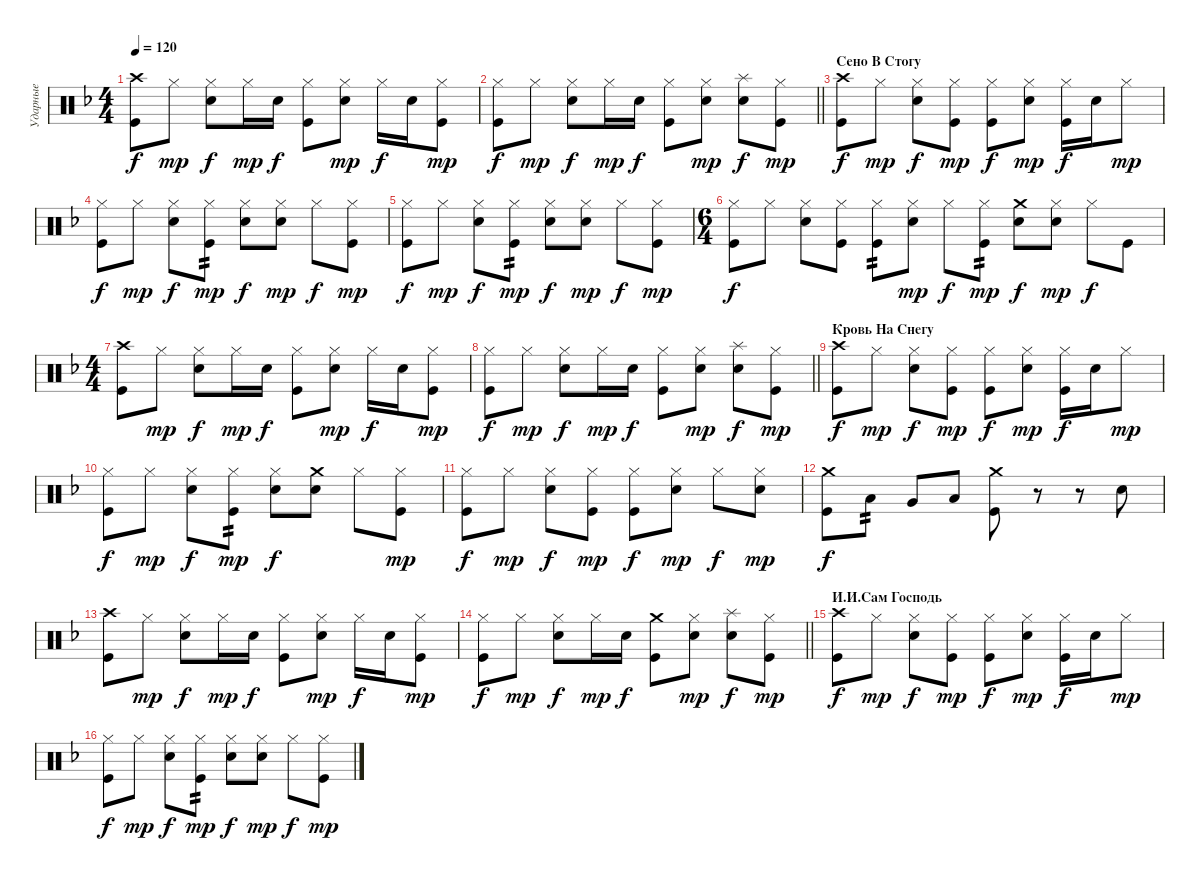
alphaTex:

\track ("Ударные" "Ударные") {instrument percussion}
\staff {score}
\articulation defaults
\ts (4 4)
\tempo 120
\clef neutral
\ks dminor
("Crash high (hit)" "Kick (hit)").8{dy f} "Hi-Hat (closed)".8{dy mp} ("Hi-Hat (closed)" "Snare (hit) 2").8{dy f} "Hi-Hat (closed)".16{dy mp} "Snare (hit) 2".16{dy f} ("Hi-Hat (closed)" "Kick (hit)").8 ("Hi-Hat (closed)" "Snare (hit) 2").8{dy mp} "Hi-Hat (closed)".16{dy f} "Snare (hit) 2".16 ("Hi-Hat (closed)" "Kick (hit)").8{dy mp} |
\barLineRight lightlight
("Hi-Hat (closed)" "Kick (hit)").8{dy f} "Hi-Hat (closed)".8{dy mp} ("Hi-Hat (closed)" "Snare (hit) 2").8{dy f} "Hi-Hat (closed)".16{dy mp} "Snare (hit) 2".16{dy f} ("Hi-Hat (closed)" "Kick (hit)").8 ("Hi-Hat (closed)" "Snare (hit) 2").8{dy mp} ("Splash (hit)" "Snare (hit) 2").8{dy f} ("Hi-Hat (closed)" "Kick (hit)").8{dy mp} |
\section ("" "Сено В Стогу")
("Crash high (hit)" "Kick (hit)").8{dy f} "Hi-Hat (closed)".8{dy mp} ("Hi-Hat (closed)" "Snare (hit) 2").8{dy f} ("Hi-Hat (closed)" "Kick (hit)").8{dy mp} ("Hi-Hat (closed)" "Kick (hit)").8{dy f} ("Hi-Hat (closed)" "Snare (hit) 2").8{dy mp} ("Hi-Hat (closed)" "Kick (hit)").16{dy f} "Snare (hit) 2".16 "Hi-Hat (closed)".8{dy mp} |
("Hi-Hat (closed)" "Kick (hit)").8{dy f} "Hi-Hat (closed)".8{dy mp} ("Hi-Hat (closed)" "Snare (hit) 2").8{dy f} ("Hi-Hat (closed)" "Kick (hit)").8{tp 2 dy mp} ("Hi-Hat (closed)" "Snare (hit) 2").8{dy f} ("Hi-Hat (closed)" "Snare (hit) 2").8{dy mp} "Hi-Hat (closed)".8{dy f} ("Hi-Hat (closed)" "Kick (hit)").8{dy mp} |
("Hi-Hat (closed)" "Kick (hit)").8{dy f} "Hi-Hat (closed)".8{dy mp} ("Hi-Hat (closed)" "Snare (hit) 2").8{dy f} ("Hi-Hat (closed)" "Kick (hit)").8{tp 2 dy mp} ("Hi-Hat (closed)" "Snare (hit) 2").8{dy f} ("Hi-Hat (closed)" "Snare (hit) 2").8{dy mp} "Hi-Hat (closed)".8{dy f} ("Hi-Hat (closed)" "Kick (hit)").8{dy mp} |
\ts (6 4)
("Hi-Hat (closed)" "Kick (hit)").8{dy f} "Hi-Hat (closed)".8 ("Hi-Hat (closed)" "Snare (hit) 2").8 ("Hi-Hat (closed)" "Kick (hit)").8 ("Hi-Hat (closed)" "Kick (hit)").8{tp 2} ("Hi-Hat (closed)" "Snare (hit) 2").8{dy mp} "Hi-Hat (closed)".8{dy f} ("Hi-Hat (closed)" "Kick (hit)").8{tp 2 dy mp} ("Crash medium (hit)" "Snare (hit) 2").8{dy f} ("Hi-Hat (closed)" "Snare (hit) 2").8{dy mp} "Hi-Hat (closed)".8{dy f} "Kick (hit)".8 |
\ts (4 4)
("Crash high (hit)" "Kick (hit)").8 "Hi-Hat (closed)".8{dy mp} ("Hi-Hat (closed)" "Snare (hit) 2").8{dy f} "Hi-Hat (closed)".16{dy mp} "Snare (hit) 2".16{dy f} ("Hi-Hat (closed)" "Kick (hit)").8 ("Hi-Hat (closed)" "Snare (hit) 2").8{dy mp} "Hi-Hat (closed)".16{dy f} "Snare (hit) 2".16 ("Hi-Hat (closed)" "Kick (hit)").8{dy mp} |
\barLineRight lightlight
("Hi-Hat (closed)" "Kick (hit)").8{dy f} "Hi-Hat (closed)".8{dy mp} ("Hi-Hat (closed)" "Snare (hit) 2").8{dy f} "Hi-Hat (closed)".16{dy mp} "Snare (hit) 2".16{dy f} ("Hi-Hat (closed)" "Kick (hit)").8 ("Hi-Hat (closed)" "Snare (hit) 2").8{dy mp} ("Splash (hit)" "Snare (hit) 2").8{dy f} ("Hi-Hat (closed)" "Kick (hit)").8{dy mp} |
\section ("" "Кровь На Снегу")
("Crash high (hit)" "Kick (hit)").8{dy f} "Hi-Hat (closed)".8{dy mp} ("Hi-Hat (closed)" "Snare (hit) 2").8{dy f} ("Hi-Hat (closed)" "Kick (hit)").8{dy mp} ("Hi-Hat (closed)" "Kick (hit)").8{dy f} ("Hi-Hat (closed)" "Snare (hit) 2").8{dy mp} ("Hi-Hat (closed)" "Kick (hit)").16{dy f} "Snare (hit) 2".16 "Hi-Hat (closed)".8{dy mp} |
("Hi-Hat (closed)" "Kick (hit)").8{dy f} "Hi-Hat (closed)".8{dy mp} ("Hi-Hat (closed)" "Snare (hit) 2").8{dy f} ("Hi-Hat (closed)" "Kick (hit)").8{tp 2 dy mp} ("Hi-Hat (closed)" "Snare (hit) 2").8{dy f} ("Crash medium (hit)" "Snare (hit) 2").8 "Hi-Hat (closed)".8 ("Hi-Hat (closed)" "Kick (hit)").8{dy mp} |
("Hi-Hat (closed)" "Kick (hit)").8{dy f} "Hi-Hat (closed)".8{dy mp} ("Hi-Hat (closed)" "Snare (hit) 2").8{dy f} ("Hi-Hat (closed)" "Kick (hit)").8{dy mp} ("Hi-Hat (closed)" "Kick (hit)").8{dy f} ("Hi-Hat (closed)" "Snare (hit) 2").8{dy mp} "Hi-Hat (closed)".8{dy f} ("Hi-Hat (closed)" "Snare (hit) 2").8{dy mp} |
("Crash medium (hit)" "Kick (hit)").8{dy f} "Low Tom (hit)".8{tp 2} "Very Low Tom (hit)".8 "Low Floor Tom (hit)".8 ("Crash medium (hit)" "Kick (hit)").8 r.8 r.8 "Snare (hit) 2".8 |
("Crash high (hit)" "Kick (hit)").8 "Hi-Hat (closed)".8{dy mp} ("Hi-Hat (closed)" "Snare (hit) 2").8{dy f} "Hi-Hat (closed)".16{dy mp} "Snare (hit) 2".16{dy f} ("Hi-Hat (closed)" "Kick (hit)").8 ("Hi-Hat (closed)" "Snare (hit) 2").8{dy mp} "Hi-Hat (closed)".16{dy f} "Snare (hit) 2".16 ("Hi-Hat (closed)" "Kick (hit)").8{dy mp} |
\barLineRight lightlight
("Hi-Hat (closed)" "Kick (hit)").8{dy f} "Hi-Hat (closed)".8{dy mp} ("Hi-Hat (closed)" "Snare (hit) 2").8{dy f} "Hi-Hat (closed)".16{dy mp} "Snare (hit) 2".16{dy f} ("Crash medium (hit)" "Kick (hit)").8 ("Hi-Hat (closed)" "Snare (hit) 2").8{dy mp} ("Splash (hit)" "Snare (hit) 2").8{dy f} ("Hi-Hat (closed)" "Kick (hit)").8{dy mp} |
\section ("" "И.И.Сам Господь")
("Crash high (hit)" "Kick (hit)").8{dy f} "Hi-Hat (closed)".8{dy mp} ("Hi-Hat (closed)" "Snare (hit) 2").8{dy f} ("Hi-Hat (closed)" "Kick (hit)").8{dy mp} ("Hi-Hat (closed)" "Kick (hit)").8{dy f} ("Hi-Hat (closed)" "Snare (hit) 2").8{dy mp} ("Hi-Hat (closed)" "Kick (hit)").16{dy f} "Snare (hit) 2".16 "Hi-Hat (closed)".8{dy mp} |
("Hi-Hat (closed)" "Kick (hit)").8{dy f} "Hi-Hat (closed)".8{dy mp} ("Hi-Hat (closed)" "Snare (hit) 2").8{dy f} ("Hi-Hat (closed)" "Kick (hit)").8{tp 2 dy mp} ("Hi-Hat (closed)" "Snare (hit) 2").8{dy f} ("Hi-Hat (closed)" "Snare (hit) 2").8{dy mp} "Hi-Hat (closed)".8{dy f} ("Hi-Hat (closed)" "Kick (hit)").8{dy mp}
